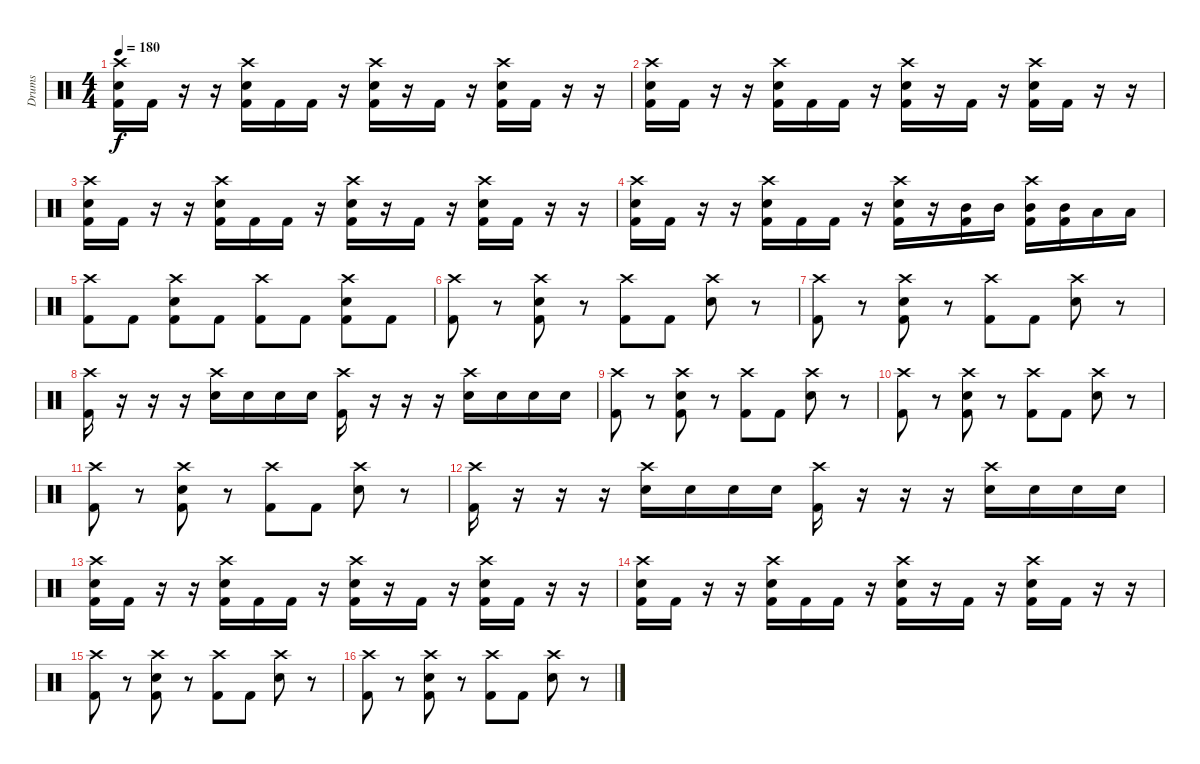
\track ("Drums" "Drums") {instrument percussion}
\staff {score}
\articulation defaults
\ts (4 4)
\tempo 180
\clef neutral
\ks c
("Crash high (hit)" "Electric Snare (hit)" "Kick (hit) 2").16{dy f} "Kick (hit) 2".16 r.16 r.16 ("Crash high (hit)" "Electric Snare (hit)" "Kick (hit) 2").16 "Kick (hit) 2".16 "Kick (hit) 2".16 r.16 ("Crash high (hit)" "Electric Snare (hit)" "Kick (hit) 2").16 r.16 "Kick (hit) 2".16 r.16 ("Crash high (hit)" "Electric Snare (hit)" "Kick (hit) 2").16 "Kick (hit) 2".16 r.16 r.16 |
("Crash high (hit)" "Electric Snare (hit)" "Kick (hit) 2").16 "Kick (hit) 2".16 r.16 r.16 ("Crash high (hit)" "Electric Snare (hit)" "Kick (hit) 2").16 "Kick (hit) 2".16 "Kick (hit) 2".16 r.16 ("Crash high (hit)" "Electric Snare (hit)" "Kick (hit) 2").16 r.16 "Kick (hit) 2".16 r.16 ("Crash high (hit)" "Electric Snare (hit)" "Kick (hit) 2").16 "Kick (hit) 2".16 r.16 r.16 |
("Crash high (hit)" "Electric Snare (hit)" "Kick (hit) 2").16 "Kick (hit) 2".16 r.16 r.16 ("Crash high (hit)" "Electric Snare (hit)" "Kick (hit) 2").16 "Kick (hit) 2".16 "Kick (hit) 2".16 r.16 ("Crash high (hit)" "Electric Snare (hit)" "Kick (hit) 2").16 r.16 "Kick (hit) 2".16 r.16 ("Crash high (hit)" "Electric Snare (hit)" "Kick (hit) 2").16 "Kick (hit) 2".16 r.16 r.16 |
("Crash high (hit)" "Electric Snare (hit)" "Kick (hit) 2").16 "Kick (hit) 2".16 r.16 r.16 ("Crash high (hit)" "Electric Snare (hit)" "Kick (hit) 2").16 "Kick (hit) 2".16 "Kick (hit) 2".16 r.16 ("Crash high (hit)" "Electric Snare (hit)" "Kick (hit) 2").16 r.16 ("Mid Tom (hit)" "Kick (hit) 2").16 "Mid Tom (hit)".16 ("Crash high (hit)" "Mid Tom (hit)" "Kick (hit) 2").16 ("Mid Tom (hit)" "Kick (hit) 2").16 "Low Tom (hit)".16 "Low Tom (hit)".16 |
("Crash high (hit)" "Kick (hit) 2").8 "Kick (hit) 2".8 ("Crash high (hit)" "Electric Snare (hit)" "Kick (hit) 2").8 "Kick (hit) 2".8 ("Crash high (hit)" "Kick (hit) 2").8 "Kick (hit) 2".8 ("Crash high (hit)" "Electric Snare (hit)" "Kick (hit) 2").8 "Kick (hit) 2".8 |
("Crash high (hit)" "Kick (hit) 2").8 r.8 ("Crash high (hit)" "Electric Snare (hit)" "Kick (hit) 2").8 r.8 ("Crash high (hit)" "Kick (hit) 2").8 "Kick (hit) 2".8 ("Crash high (hit)" "Electric Snare (hit)").8 r.8 |
("Crash high (hit)" "Kick (hit) 2").8 r.8 ("Crash high (hit)" "Electric Snare (hit)" "Kick (hit) 2").8 r.8 ("Crash high (hit)" "Kick (hit) 2").8 "Kick (hit) 2".8 ("Crash high (hit)" "Electric Snare (hit)").8 r.8 |
("Crash high (hit)" "Kick (hit) 2").16 r.16 r.16 r.16 ("Crash high (hit)" "Electric Snare (hit)").16 "Electric Snare (hit)".16 "Electric Snare (hit)".16 "Electric Snare (hit)".16 ("Crash high (hit)" "Kick (hit) 2").16 r.16 r.16 r.16 ("Crash high (hit)" "Electric Snare (hit)").16 "Electric Snare (hit)".16 "Electric Snare (hit)".16 "Electric Snare (hit)".16 |
("Crash high (hit)" "Kick (hit) 2").8 r.8 ("Crash high (hit)" "Electric Snare (hit)" "Kick (hit) 2").8 r.8 ("Crash high (hit)" "Kick (hit) 2").8 "Kick (hit) 2".8 ("Crash high (hit)" "Electric Snare (hit)").8 r.8 |
("Crash high (hit)" "Kick (hit) 2").8 r.8 ("Crash high (hit)" "Electric Snare (hit)" "Kick (hit) 2").8 r.8 ("Crash high (hit)" "Kick (hit) 2").8 "Kick (hit) 2".8 ("Crash high (hit)" "Electric Snare (hit)").8 r.8 |
("Crash high (hit)" "Kick (hit) 2").8 r.8 ("Crash high (hit)" "Electric Snare (hit)" "Kick (hit) 2").8 r.8 ("Crash high (hit)" "Kick (hit) 2").8 "Kick (hit) 2".8 ("Crash high (hit)" "Electric Snare (hit)").8 r.8 |
("Crash high (hit)" "Kick (hit) 2").16 r.16 r.16 r.16 ("Crash high (hit)" "Electric Snare (hit)").16 "Electric Snare (hit)".16 "Electric Snare (hit)".16 "Electric Snare (hit)".16 ("Crash high (hit)" "Kick (hit) 2").16 r.16 r.16 r.16 ("Crash high (hit)" "Electric Snare (hit)").16 "Electric Snare (hit)".16 "Electric Snare (hit)".16 "Electric Snare (hit)".16 |
("Crash high (hit)" "Electric Snare (hit)" "Kick (hit) 2").16 "Kick (hit) 2".16 r.16 r.16 ("Crash high (hit)" "Electric Snare (hit)" "Kick (hit) 2").16 "Kick (hit) 2".16 "Kick (hit) 2".16 r.16 ("Crash high (hit)" "Electric Snare (hit)" "Kick (hit) 2").16 r.16 "Kick (hit) 2".16 r.16 ("Crash high (hit)" "Electric Snare (hit)" "Kick (hit) 2").16 "Kick (hit) 2".16 r.16 r.16 |
("Crash high (hit)" "Electric Snare (hit)" "Kick (hit) 2").16 "Kick (hit) 2".16 r.16 r.16 ("Crash high (hit)" "Electric Snare (hit)" "Kick (hit) 2").16 "Kick (hit) 2".16 "Kick (hit) 2".16 r.16 ("Crash high (hit)" "Electric Snare (hit)" "Kick (hit) 2").16 r.16 "Kick (hit) 2".16 r.16 ("Crash high (hit)" "Electric Snare (hit)" "Kick (hit) 2").16 "Kick (hit) 2".16 r.16 r.16 |
("Crash high (hit)" "Kick (hit) 2").8 r.8 ("Crash high (hit)" "Electric Snare (hit)" "Kick (hit) 2").8 r.8 ("Crash high (hit)" "Kick (hit) 2").8 "Kick (hit) 2".8 ("Crash high (hit)" "Electric Snare (hit)").8 r.8 |
("Crash high (hit)" "Kick (hit) 2").8 r.8 ("Crash high (hit)" "Electric Snare (hit)" "Kick (hit) 2").8 r.8 ("Crash high (hit)" "Kick (hit) 2").8 "Kick (hit) 2".8 ("Crash high (hit)" "Electric Snare (hit)").8 r.8
